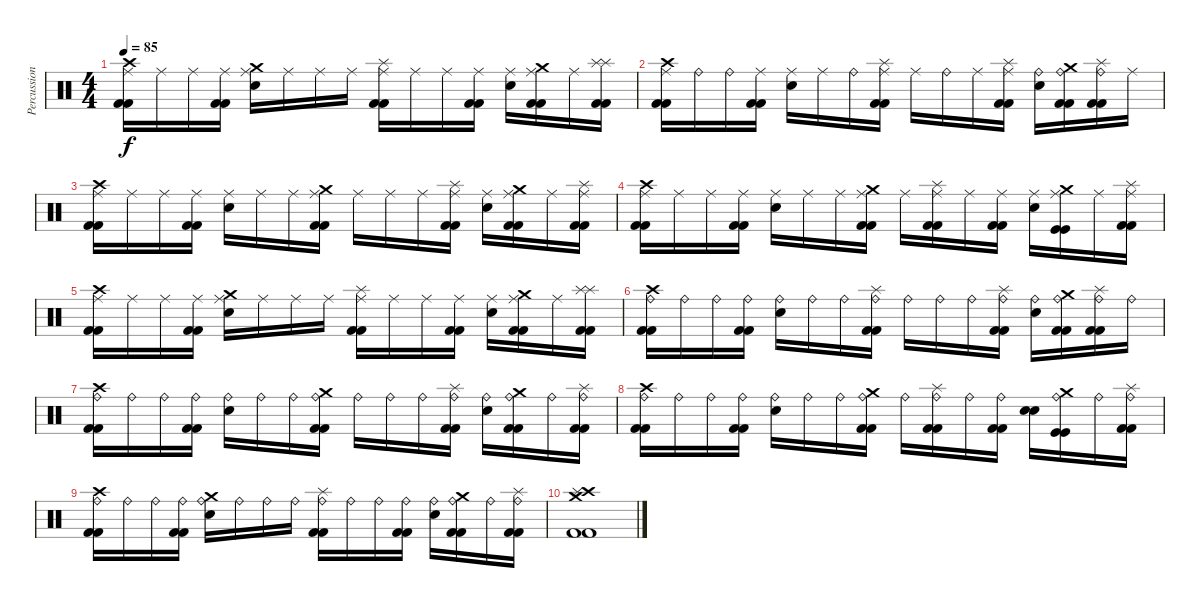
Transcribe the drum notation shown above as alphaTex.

\track ("Percussion" "Percussion") {instrument percussion}
\staff {score}
\articulation defaults
\ts (4 4)
\tempo 85
\clef neutral
\ks c
("Ride (middle)" "Crash high (hit)" "Kick (hit) 2" "Kick (hit) 2").16{dy f} "Ride (middle)".16 "Ride (middle)".16 ("Ride (middle)" "Kick (hit) 2" "Kick (hit) 2").16 ("Ride (middle)" "Crash medium (hit)" "Electric Snare (hit)").16 "Ride (middle)".16 "Ride (middle)".16 "Ride (middle)".16 ("Ride (middle)" "Splash (hit)" "Kick (hit) 2" "Kick (hit) 2").16 "Ride (middle)".16 "Ride (middle)".16 ("Ride (middle)" "Kick (hit) 2" "Kick (hit) 2").16 ("Ride (middle)" "Electric Snare (hit)").16 ("Ride (middle)" "Crash medium (hit)" "Kick (hit) 2" "Kick (hit) 2").16 "Ride (middle)".16 ("Splash (hit)" "Splash (hit)" "Kick (hit) 2" "Kick (hit) 2").16 |
("Ride (middle)" "Crash high (hit)" "Kick (hit) 2" "Kick (hit) 2").16 "Ride (bell)".16 "Ride (bell)".16 ("Ride (middle)" "Kick (hit) 2" "Kick (hit) 2").16 ("Ride (middle)" "Electric Snare (hit)").16 "Ride (middle)".16 "Ride (bell)".16 ("Ride (middle)" "Splash (hit)" "Kick (hit) 2" "Kick (hit) 2").16 "Ride (middle)".16 "Ride (bell)".16 "Ride (middle)".16 ("Ride (middle)" "Splash (hit)" "Kick (hit) 2" "Kick (hit) 2").16 ("Ride (bell)" "Electric Snare (hit)").16 ("Ride (bell)" "Crash medium (hit)" "Kick (hit) 2" "Kick (hit) 2").16 ("Ride (bell)" "Splash (hit)" "Kick (hit) 2" "Kick (hit) 2").16 "Ride (middle)".16 |
("Ride (middle)" "Crash high (hit)" "Kick (hit) 2" "Kick (hit) 2").16 "Ride (middle)".16 "Ride (middle)".16 ("Ride (middle)" "Kick (hit) 2" "Kick (hit) 2").16 ("Ride (middle)" "Electric Snare (hit)").16 "Ride (middle)".16 "Ride (middle)".16 ("Ride (middle)" "Crash medium (hit)" "Kick (hit) 2" "Kick (hit) 2").16 "Ride (middle)".16 "Ride (middle)".16 "Ride (middle)".16 ("Ride (middle)" "Splash (hit)" "Kick (hit) 2" "Kick (hit) 2").16 ("Ride (middle)" "Electric Snare (hit)").16 ("Ride (middle)" "Crash medium (hit)" "Kick (hit) 2" "Kick (hit) 2").16 "Ride (middle)".16 ("Ride (middle)" "Splash (hit)" "Kick (hit) 2" "Kick (hit) 2").16 |
("Ride (middle)" "Crash high (hit)" "Kick (hit) 2" "Kick (hit) 2").16 "Ride (middle)".16 "Ride (middle)".16 ("Ride (middle)" "Kick (hit) 2" "Kick (hit) 2").16 ("Ride (middle)" "Electric Snare (hit)").16 "Ride (middle)".16 "Ride (middle)".16 ("Ride (middle)" "Crash medium (hit)" "Kick (hit) 2" "Kick (hit) 2").16 "Ride (middle)".16 ("Ride (middle)" "Splash (hit)" "Kick (hit) 2" "Kick (hit) 2").16 "Ride (middle)".16 ("Ride (middle)" "Kick (hit) 2" "Kick (hit) 2").16 ("Ride (middle)" "Electric Snare (hit)").16 ("Ride (middle)" "Crash medium (hit)" "Kick (hit)" "Kick (hit)").16 "Ride (middle)".16 ("Ride (middle)" "Splash (hit)" "Kick (hit) 2" "Kick (hit) 2").16 |
("Ride (middle)" "Crash high (hit)" "Kick (hit) 2" "Kick (hit) 2").16 "Ride (middle)".16 "Ride (middle)".16 ("Ride (middle)" "Kick (hit) 2" "Kick (hit) 2").16 ("Ride (middle)" "Crash medium (hit)" "Electric Snare (hit)").16 "Ride (middle)".16 "Ride (middle)".16 "Ride (middle)".16 ("Ride (middle)" "Splash (hit)" "Kick (hit) 2" "Kick (hit) 2").16 "Ride (middle)".16 "Ride (middle)".16 ("Ride (middle)" "Kick (hit) 2" "Kick (hit) 2").16 ("Ride (middle)" "Electric Snare (hit)").16 ("Ride (middle)" "Crash medium (hit)" "Kick (hit) 2" "Kick (hit) 2").16 "Ride (middle)".16 ("Splash (hit)" "Splash (hit)" "Kick (hit) 2" "Kick (hit) 2").16 |
("Ride (bell)" "Crash high (hit)" "Kick (hit) 2" "Kick (hit) 2").16 "Ride (bell)".16 "Ride (bell)".16 ("Ride (bell)" "Kick (hit) 2" "Kick (hit) 2").16 ("Ride (bell)" "Electric Snare (hit)").16 "Ride (bell)".16 "Ride (bell)".16 ("Ride (bell)" "Splash (hit)" "Kick (hit) 2" "Kick (hit) 2").16 "Ride (bell)".16 "Ride (bell)".16 "Ride (bell)".16 ("Ride (bell)" "Splash (hit)" "Kick (hit) 2" "Kick (hit) 2").16 ("Ride (bell)" "Electric Snare (hit)").16 ("Ride (bell)" "Crash medium (hit)" "Kick (hit) 2" "Kick (hit) 2").16 ("Ride (bell)" "Splash (hit)" "Kick (hit) 2" "Kick (hit) 2").16 "Ride (bell)".16 |
("Ride (bell)" "Crash high (hit)" "Kick (hit) 2" "Kick (hit) 2").16 "Ride (bell)".16 "Ride (bell)".16 ("Ride (bell)" "Kick (hit) 2" "Kick (hit) 2").16 ("Ride (bell)" "Electric Snare (hit)").16 "Ride (bell)".16 "Ride (bell)".16 ("Ride (bell)" "Crash medium (hit)" "Kick (hit) 2" "Kick (hit) 2").16 "Ride (bell)".16 "Ride (bell)".16 "Ride (bell)".16 ("Ride (bell)" "Splash (hit)" "Kick (hit) 2" "Kick (hit) 2").16 ("Ride (bell)" "Electric Snare (hit)").16 ("Ride (bell)" "Crash medium (hit)" "Kick (hit) 2" "Kick (hit) 2").16 "Ride (bell)".16 ("Ride (bell)" "Splash (hit)" "Kick (hit) 2" "Kick (hit) 2").16 |
("Ride (bell)" "Crash high (hit)" "Kick (hit) 2" "Kick (hit) 2").16 "Ride (bell)".16 "Ride (bell)".16 ("Ride (bell)" "Kick (hit) 2" "Kick (hit) 2").16 ("Ride (bell)" "Electric Snare (hit)").16 "Ride (bell)".16 "Ride (bell)".16 ("Ride (bell)" "Crash medium (hit)" "Kick (hit) 2" "Kick (hit) 2").16 "Ride (bell)".16 ("Ride (bell)" "Splash (hit)" "Kick (hit) 2" "Kick (hit) 2").16 "Ride (bell)".16 ("Ride (bell)" "Kick (hit) 2" "Kick (hit) 2").16 ("Snare (hit)" "Electric Snare (hit)").16 ("Ride (bell)" "Crash medium (hit)" "Kick (hit)" "Kick (hit)").16 "Ride (bell)".16 ("Ride (bell)" "Splash (hit)" "Kick (hit) 2" "Kick (hit) 2").16 |
("Ride (bell)" "Crash high (hit)" "Kick (hit) 2" "Kick (hit) 2").16 "Ride (bell)".16 "Ride (bell)".16 ("Ride (bell)" "Kick (hit) 2" "Kick (hit) 2").16 ("Ride (bell)" "Crash medium (hit)" "Electric Snare (hit)").16 "Ride (bell)".16 "Ride (bell)".16 "Ride (bell)".16 ("Ride (bell)" "Splash (hit)" "Kick (hit) 2" "Kick (hit) 2").16 "Ride (bell)".16 "Ride (bell)".16 ("Ride (bell)" "Kick (hit) 2" "Kick (hit) 2").16 ("Ride (bell)" "Electric Snare (hit)").16 ("Ride (bell)" "Crash medium (hit)" "Kick (hit) 2" "Kick (hit) 2").16 "Ride (bell)".16 ("Ride (bell)" "Splash (hit)" "Kick (hit) 2" "Kick (hit) 2").16 |
("Crash medium (hit)" "Crash high (hit)" "Splash (hit)" "Kick (hit) 2" "Kick (hit) 2").1
